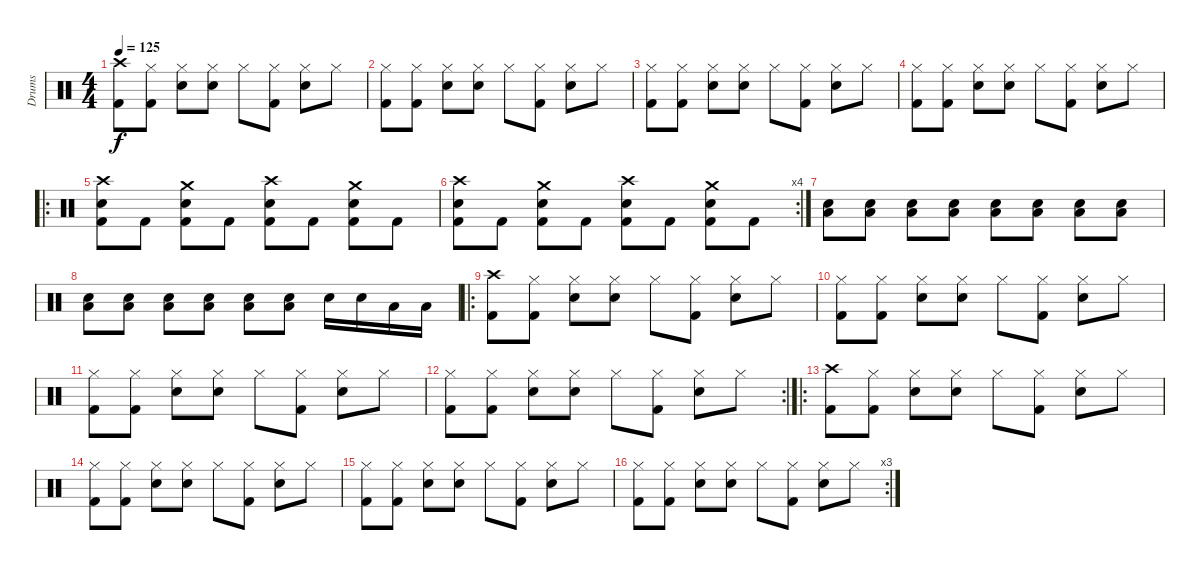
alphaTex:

\track ("Drums" "Drums") {instrument percussion}
\staff {score}
\articulation defaults
\ts (4 4)
\tempo 125
\clef neutral
\ks c
("Crash high (hit)" "Kick (hit) 2").8{dy f} ("Hi-Hat (closed)" "Kick (hit) 2").8 ("Hi-Hat (closed)" "Electric Snare (hit)").8 ("Hi-Hat (closed)" "Electric Snare (hit)").8 "Hi-Hat (closed)".8 ("Hi-Hat (closed)" "Kick (hit) 2").8 ("Hi-Hat (closed)" "Electric Snare (hit)").8 "Hi-Hat (closed)".8 |
("Hi-Hat (closed)" "Kick (hit) 2").8 ("Hi-Hat (closed)" "Kick (hit) 2").8 ("Hi-Hat (closed)" "Electric Snare (hit)").8 ("Hi-Hat (closed)" "Electric Snare (hit)").8 "Hi-Hat (closed)".8 ("Hi-Hat (closed)" "Kick (hit) 2").8 ("Hi-Hat (closed)" "Electric Snare (hit)").8 "Hi-Hat (closed)".8 |
("Hi-Hat (closed)" "Kick (hit) 2").8 ("Hi-Hat (closed)" "Kick (hit) 2").8 ("Hi-Hat (closed)" "Electric Snare (hit)").8 ("Hi-Hat (closed)" "Electric Snare (hit)").8 "Hi-Hat (closed)".8 ("Hi-Hat (closed)" "Kick (hit) 2").8 ("Hi-Hat (closed)" "Electric Snare (hit)").8 "Hi-Hat (closed)".8 |
("Hi-Hat (closed)" "Kick (hit) 2").8 ("Hi-Hat (closed)" "Kick (hit) 2").8 ("Hi-Hat (closed)" "Electric Snare (hit)").8 ("Hi-Hat (closed)" "Electric Snare (hit)").8 "Hi-Hat (closed)".8 ("Hi-Hat (closed)" "Kick (hit) 2").8 ("Hi-Hat (closed)" "Electric Snare (hit)").8 "Hi-Hat (closed)".8 |
\ro
("Crash high (hit)" "Kick (hit) 2" "Electric Snare (hit)").8 "Kick (hit) 2".8 ("Crash medium (hit)" "Kick (hit) 2" "Electric Snare (hit)").8 "Kick (hit) 2".8 ("Crash high (hit)" "Kick (hit) 2" "Electric Snare (hit)").8 "Kick (hit) 2".8 ("Crash medium (hit)" "Kick (hit) 2" "Electric Snare (hit)").8 "Kick (hit) 2".8 |
\rc 4
("Crash high (hit)" "Kick (hit) 2" "Electric Snare (hit)").8 "Kick (hit) 2".8 ("Crash medium (hit)" "Kick (hit) 2" "Electric Snare (hit)").8 "Kick (hit) 2".8 ("Crash high (hit)" "Kick (hit) 2" "Electric Snare (hit)").8 "Kick (hit) 2".8 ("Crash medium (hit)" "Kick (hit) 2" "Electric Snare (hit)").8 "Kick (hit) 2".8 |
("Low Floor Tom (hit)" "Electric Snare (hit)").8 ("Low Floor Tom (hit)" "Electric Snare (hit)").8 ("Low Floor Tom (hit)" "Electric Snare (hit)").8 ("Low Floor Tom (hit)" "Electric Snare (hit)").8 ("Low Floor Tom (hit)" "Electric Snare (hit)").8 ("Low Floor Tom (hit)" "Electric Snare (hit)").8 ("Low Floor Tom (hit)" "Electric Snare (hit)").8 ("Low Floor Tom (hit)" "Electric Snare (hit)").8 |
("Low Floor Tom (hit)" "Electric Snare (hit)").8 ("Low Floor Tom (hit)" "Electric Snare (hit)").8 ("Low Floor Tom (hit)" "Electric Snare (hit)").8 ("Low Floor Tom (hit)" "Electric Snare (hit)").8 ("Low Floor Tom (hit)" "Electric Snare (hit)").8 ("Low Floor Tom (hit)" "Electric Snare (hit)").8 "Electric Snare (hit)".16 "Electric Snare (hit)".16 "Low Tom (hit)".16 "Low Tom (hit)".16 |
\ro
("Crash high (hit)" "Kick (hit) 2").8 ("Hi-Hat (closed)" "Kick (hit) 2").8 ("Hi-Hat (closed)" "Electric Snare (hit)").8 ("Hi-Hat (closed)" "Electric Snare (hit)").8 "Hi-Hat (closed)".8 ("Hi-Hat (closed)" "Kick (hit) 2").8 ("Hi-Hat (closed)" "Electric Snare (hit)").8 "Hi-Hat (closed)".8 |
("Hi-Hat (closed)" "Kick (hit) 2").8 ("Hi-Hat (closed)" "Kick (hit) 2").8 ("Hi-Hat (closed)" "Electric Snare (hit)").8 ("Hi-Hat (closed)" "Electric Snare (hit)").8 "Hi-Hat (closed)".8 ("Hi-Hat (closed)" "Kick (hit) 2").8 ("Hi-Hat (closed)" "Electric Snare (hit)").8 "Hi-Hat (closed)".8 |
("Hi-Hat (closed)" "Kick (hit) 2").8 ("Hi-Hat (closed)" "Kick (hit) 2").8 ("Hi-Hat (closed)" "Electric Snare (hit)").8 ("Hi-Hat (closed)" "Electric Snare (hit)").8 "Hi-Hat (closed)".8 ("Hi-Hat (closed)" "Kick (hit) 2").8 ("Hi-Hat (closed)" "Electric Snare (hit)").8 "Hi-Hat (closed)".8 |
\rc 2
("Hi-Hat (closed)" "Kick (hit) 2").8 ("Hi-Hat (closed)" "Kick (hit) 2").8 ("Hi-Hat (closed)" "Electric Snare (hit)").8 ("Hi-Hat (closed)" "Electric Snare (hit)").8 "Hi-Hat (closed)".8 ("Hi-Hat (closed)" "Kick (hit) 2").8 ("Hi-Hat (closed)" "Electric Snare (hit)").8 "Hi-Hat (closed)".8 |
\ro
("Crash high (hit)" "Kick (hit) 2").8 ("Hi-Hat (closed)" "Kick (hit) 2").8 ("Hi-Hat (closed)" "Electric Snare (hit)").8 ("Hi-Hat (closed)" "Electric Snare (hit)").8 "Hi-Hat (closed)".8 ("Hi-Hat (closed)" "Kick (hit) 2").8 ("Hi-Hat (closed)" "Electric Snare (hit)").8 "Hi-Hat (closed)".8 |
("Hi-Hat (closed)" "Kick (hit) 2").8 ("Hi-Hat (closed)" "Kick (hit) 2").8 ("Hi-Hat (closed)" "Electric Snare (hit)").8 ("Hi-Hat (closed)" "Electric Snare (hit)").8 "Hi-Hat (closed)".8 ("Hi-Hat (closed)" "Kick (hit) 2").8 ("Hi-Hat (closed)" "Electric Snare (hit)").8 "Hi-Hat (closed)".8 |
("Hi-Hat (closed)" "Kick (hit) 2").8 ("Hi-Hat (closed)" "Kick (hit) 2").8 ("Hi-Hat (closed)" "Electric Snare (hit)").8 ("Hi-Hat (closed)" "Electric Snare (hit)").8 "Hi-Hat (closed)".8 ("Hi-Hat (closed)" "Kick (hit) 2").8 ("Hi-Hat (closed)" "Electric Snare (hit)").8 "Hi-Hat (closed)".8 |
\rc 3
("Hi-Hat (closed)" "Kick (hit) 2").8 ("Hi-Hat (closed)" "Kick (hit) 2").8 ("Hi-Hat (closed)" "Electric Snare (hit)").8 ("Hi-Hat (closed)" "Electric Snare (hit)").8 "Hi-Hat (closed)".8 ("Hi-Hat (closed)" "Kick (hit) 2").8 ("Hi-Hat (closed)" "Electric Snare (hit)").8 "Hi-Hat (closed)".8
